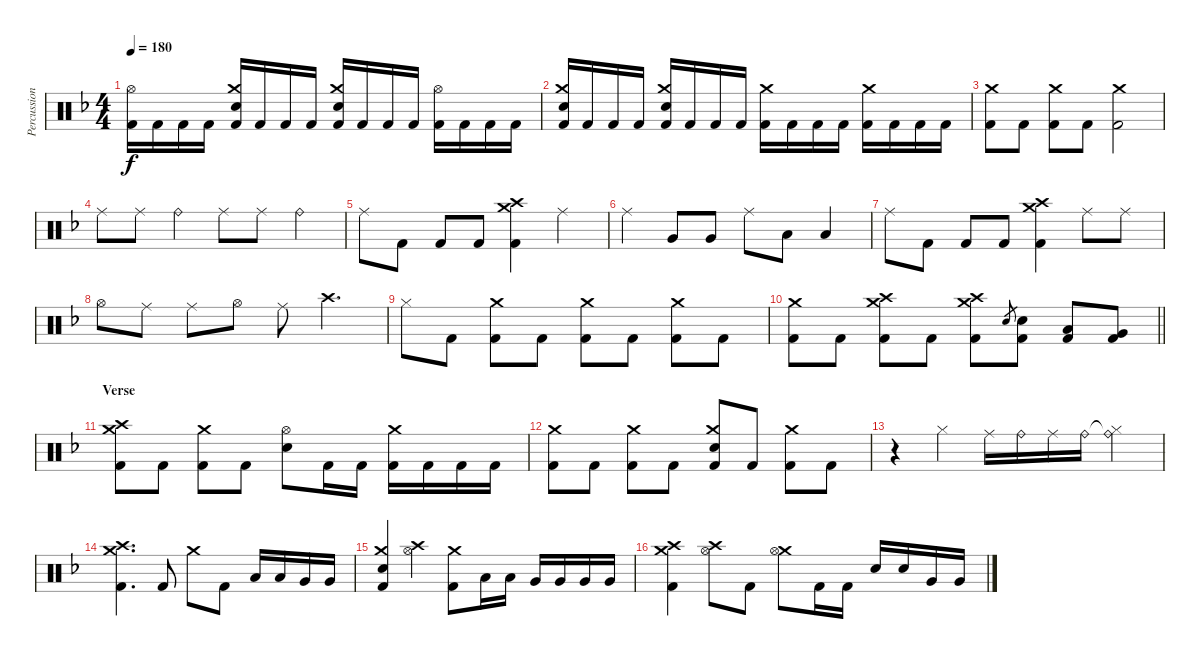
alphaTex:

\track ("Percussion" "Percussion") {instrument percussion}
\staff {score}
\articulation defaults
\ts (4 4)
\tempo 180
\clef neutral
\ks f
("Hi-Hat (open)" "Kick (hit) 2").16{dy f} "Kick (hit) 2".16 "Kick (hit) 2".16 "Kick (hit) 2".16 ("Crash medium (hit)" "Electric Snare (hit)" "Kick (hit) 2").16 "Kick (hit) 2".16 "Kick (hit) 2".16 "Kick (hit) 2".16 ("Crash medium (hit)" "Electric Snare (hit)" "Kick (hit) 2").16 "Kick (hit) 2".16 "Kick (hit) 2".16 "Kick (hit) 2".16 ("Hi-Hat (open)" "Kick (hit) 2").16 "Kick (hit) 2".16 "Kick (hit) 2".16 "Kick (hit) 2".16 |
("Crash medium (hit)" "Electric Snare (hit)" "Kick (hit) 2").16 "Kick (hit) 2".16 "Kick (hit) 2".16 "Kick (hit) 2".16 ("Crash medium (hit)" "Electric Snare (hit)" "Kick (hit) 2").16 "Kick (hit) 2".16 "Kick (hit) 2".16 "Kick (hit) 2".16 ("Crash medium (hit)" "Kick (hit) 2").16 "Kick (hit) 2".16 "Kick (hit) 2".16 "Kick (hit) 2".16 ("Crash medium (hit)" "Kick (hit) 2").16 "Kick (hit) 2".16 "Kick (hit) 2".16 "Kick (hit) 2".16 |
("Crash medium (hit)" "Kick (hit) 2").8 "Kick (hit) 2".8 ("Crash medium (hit)" "Kick (hit) 2").8 "Kick (hit) 2".8 ("Crash medium (hit)" "Kick (hit) 2").2 |
"Ride (middle)".8 "Ride (middle)".8 "Ride (bell)".4 "Ride (middle)".8 "Ride (middle)".8 "Ride (bell)".4 |
"Ride (middle)".8 "Kick (hit) 2".8 "Kick (hit) 2".8 "Kick (hit) 2".8 ("Crash medium (hit)" "Crash high (hit)" "Kick (hit) 2").4 "Ride (middle)".4 |
"Ride (middle)".4 "Very Low Tom (hit)".8 "Very Low Tom (hit)".8 "Ride (middle)".8 "Low Floor Tom (hit)".8 "Low Floor Tom (hit)".4 |
"Ride (middle)".8 "Kick (hit) 2".8 "Kick (hit) 2".8 "Kick (hit) 2".8 ("Crash medium (hit)" "Crash high (hit)" "Kick (hit) 2").4 "Ride (middle)".8 "Ride (middle)".8 |
"Hi-Hat (open)".8 "Ride (middle)".8 "Ride (middle)".8 "Hi-Hat (open)".8 "Ride (middle)".8 "Crash high (hit)".4{d} |
"Hi-Hat (closed)".8 "Kick (hit) 2".8 ("Crash medium (hit)" "Kick (hit) 2").8 "Kick (hit) 2".8 ("Crash medium (hit)" "Kick (hit) 2").8 "Kick (hit) 2".8 ("Crash medium (hit)" "Kick (hit) 2").8 "Kick (hit) 2".8 |
\barLineRight lightlight
("Crash medium (hit)" "Kick (hit) 2").8 "Kick (hit) 2".8 ("Crash medium (hit)" "Crash high (hit)" "Kick (hit) 2").8 "Kick (hit) 2".8 ("Crash medium (hit)" "Crash high (hit)" "Kick (hit) 2").8 "Electric Snare (hit)".8{gr} ("Electric Snare (hit)" "Kick (hit) 2").8 ("Low Tom (hit)" "Kick (hit) 2").8 ("Very Low Tom (hit)" "Kick (hit) 2").8 |
\section ("" "Verse")
("Crash medium (hit)" "Crash high (hit)" "Kick (hit) 2").8 "Kick (hit) 2".8 ("Crash medium (hit)" "Kick (hit) 2").8 "Kick (hit) 2".8 ("Hi-Hat (open)" "Electric Snare (hit)").8 "Kick (hit) 2".16 "Kick (hit) 2".16 ("Crash medium (hit)" "Kick (hit) 2").16 "Kick (hit) 2".16 "Kick (hit) 2".16 "Kick (hit) 2".16 |
("Crash medium (hit)" "Kick (hit) 2").8 "Kick (hit) 2".8 ("Crash medium (hit)" "Kick (hit) 2").8 "Kick (hit) 2".8 ("Crash medium (hit)" "Electric Snare (hit)" "Kick (hit) 2").8 "Kick (hit) 2".8 ("Crash medium (hit)" "Kick (hit) 2").8 "Kick (hit) 2".8 |
r.4 "Hi-Hat (closed)".4 "Ride (middle)".16 "Ride (bell)".16 "Ride (middle)".16 "Ride (bell)".16 ("Ride (bell)"{t} "Hi-Hat (closed)").4 |
("Crash medium (hit)" "Crash high (hit)" "Kick (hit) 2").4{d} "Kick (hit) 2".8 "Crash medium (hit)".8 "Kick (hit) 2".8 "Low Tom (hit)".16 "Low Tom (hit)".16 "Very Low Tom (hit)".16 "Very Low Tom (hit)".16 |
("Crash medium (hit)" "Electric Snare (hit)" "Kick (hit) 2").4 ("Crash high (hit)" "Hi-Hat (open)").4 ("Crash medium (hit)" "Kick (hit) 2").8 "Low Tom (hit)".16 "Low Tom (hit)".16 "Very Low Tom (hit)".16 "Very Low Tom (hit)".16 "Very Low Tom (hit)".16 "Very Low Tom (hit)".16 |
("Crash medium (hit)" "Crash high (hit)" "Kick (hit) 2").4 ("Crash high (hit)" "Hi-Hat (open)").8 "Kick (hit) 2".8 ("Crash medium (hit)" "Hi-Hat (open)").8 "Kick (hit) 2".16 "Kick (hit) 2".16 "Electric Snare (hit)".16 "Electric Snare (hit)".16 "Very Low Tom (hit)".16 "Very Low Tom (hit)".16
